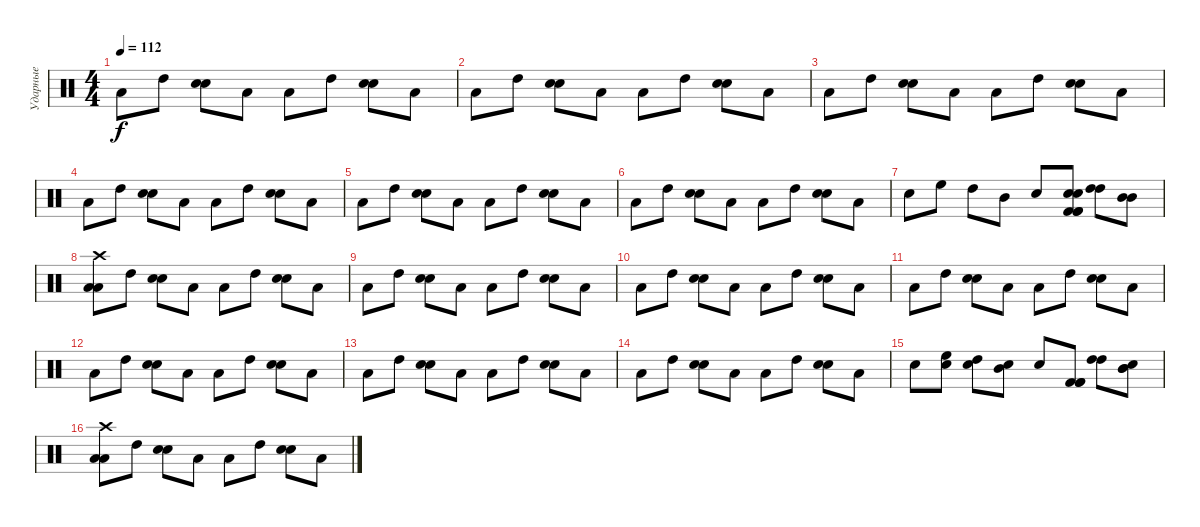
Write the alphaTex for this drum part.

\track ("Ударные" "Ударные") {instrument percussion}
\staff {score}
\articulation defaults
\ts (4 4)
\tempo 112
\clef neutral
\ks c "Low Tom (hit)".8{dy f} "High Tom (hit)".8
("Snare (hit) 2" "Snare (hit) 2").8 "Low Tom (hit)".8 "Low Tom (hit)".8 "High Tom (hit)".8 ("Snare (hit) 2" "Snare (hit) 2").8 "Low Tom (hit)".8 |
"Low Tom (hit)".8 "High Tom (hit)".8 ("Snare (hit) 2" "Snare (hit) 2").8 "Low Tom (hit)".8 "Low Tom (hit)".8 "High Tom (hit)".8 ("Snare (hit) 2" "Snare (hit) 2").8 "Low Tom (hit)".8 |
"Low Tom (hit)".8 "High Tom (hit)".8 ("Snare (hit) 2" "Snare (hit) 2").8 "Low Tom (hit)".8 "Low Tom (hit)".8 "High Tom (hit)".8 ("Snare (hit) 2" "Snare (hit) 2").8 "Low Tom (hit)".8 |
"Low Tom (hit)".8 "High Tom (hit)".8 ("Snare (hit) 2" "Snare (hit) 2").8 "Low Tom (hit)".8 "Low Tom (hit)".8 "High Tom (hit)".8 ("Snare (hit) 2" "Snare (hit) 2").8 "Low Tom (hit)".8 |
"Low Tom (hit)".8 "High Tom (hit)".8 ("Snare (hit) 2" "Snare (hit) 2").8 "Low Tom (hit)".8 "Low Tom (hit)".8 "High Tom (hit)".8 ("Snare (hit) 2" "Snare (hit) 2").8 "Low Tom (hit)".8 |
"Low Tom (hit)".8 "High Tom (hit)".8 ("Snare (hit) 2" "Snare (hit) 2").8 "Low Tom (hit)".8 "Low Tom (hit)".8 "High Tom (hit)".8 ("Snare (hit) 2" "Snare (hit) 2").8 "Low Tom (hit)".8 |
"Snare (hit)".8 "High Floor Tom (hit)".8 "High Tom (hit)".8 "Mid Tom (hit)".8 "Snare (hit)".8 ("Kick (hit) 2" "Kick (hit) 2" "Kick (hit) 2" "Snare (hit)" "Snare (hit)").8 ("High Tom (hit)" "High Tom (hit)").8 ("Mid Tom (hit)" "Mid Tom (hit)").8 |
("Crash high (hit)" "Low Tom (hit)" "Low Tom (hit)").8 "High Tom (hit)".8 ("Snare (hit) 2" "Snare (hit) 2").8 "Low Tom (hit)".8 "Low Tom (hit)".8 "High Tom (hit)".8 ("Snare (hit) 2" "Snare (hit) 2").8 "Low Tom (hit)".8 |
"Low Tom (hit)".8 "High Tom (hit)".8 ("Snare (hit) 2" "Snare (hit) 2").8 "Low Tom (hit)".8 "Low Tom (hit)".8 "High Tom (hit)".8 ("Snare (hit) 2" "Snare (hit) 2").8 "Low Tom (hit)".8 |
"Low Tom (hit)".8 "High Tom (hit)".8 ("Snare (hit) 2" "Snare (hit) 2").8 "Low Tom (hit)".8 "Low Tom (hit)".8 "High Tom (hit)".8 ("Snare (hit) 2" "Snare (hit) 2").8 "Low Tom (hit)".8 |
"Low Tom (hit)".8 "High Tom (hit)".8 ("Snare (hit) 2" "Snare (hit) 2").8 "Low Tom (hit)".8 "Low Tom (hit)".8 "High Tom (hit)".8 ("Snare (hit) 2" "Snare (hit) 2").8 "Low Tom (hit)".8 |
"Low Tom (hit)".8 "High Tom (hit)".8 ("Snare (hit) 2" "Snare (hit) 2").8 "Low Tom (hit)".8 "Low Tom (hit)".8 "High Tom (hit)".8 ("Snare (hit) 2" "Snare (hit) 2").8 "Low Tom (hit)".8 |
"Low Tom (hit)".8 "High Tom (hit)".8 ("Snare (hit) 2" "Snare (hit) 2").8 "Low Tom (hit)".8 "Low Tom (hit)".8 "High Tom (hit)".8 ("Snare (hit) 2" "Snare (hit) 2").8 "Low Tom (hit)".8 |
"Low Tom (hit)".8 "High Tom (hit)".8 ("Snare (hit) 2" "Snare (hit) 2").8 "Low Tom (hit)".8 "Low Tom (hit)".8 "High Tom (hit)".8 ("Snare (hit) 2" "Snare (hit) 2").8 "Low Tom (hit)".8 |
"Snare (hit)".8 ("Snare (hit)" "High Floor Tom (hit)").8 ("Snare (hit)" "High Tom (hit)").8 ("Mid Tom (hit)" "Snare (hit)").8 "Snare (hit)".8 ("Kick (hit) 2" "Kick (hit) 2" "Kick (hit) 2").8 ("High Tom (hit)" "High Tom (hit)").8 ("Mid Tom (hit)" "Mid Tom (hit)" "Snare (hit)").8 |
("Crash high (hit)" "Low Tom (hit)" "Low Tom (hit)").8 "High Tom (hit)".8 ("Snare (hit) 2" "Snare (hit) 2").8 "Low Tom (hit)".8 "Low Tom (hit)".8 "High Tom (hit)".8 ("Snare (hit) 2" "Snare (hit) 2").8 "Low Tom (hit)".8
